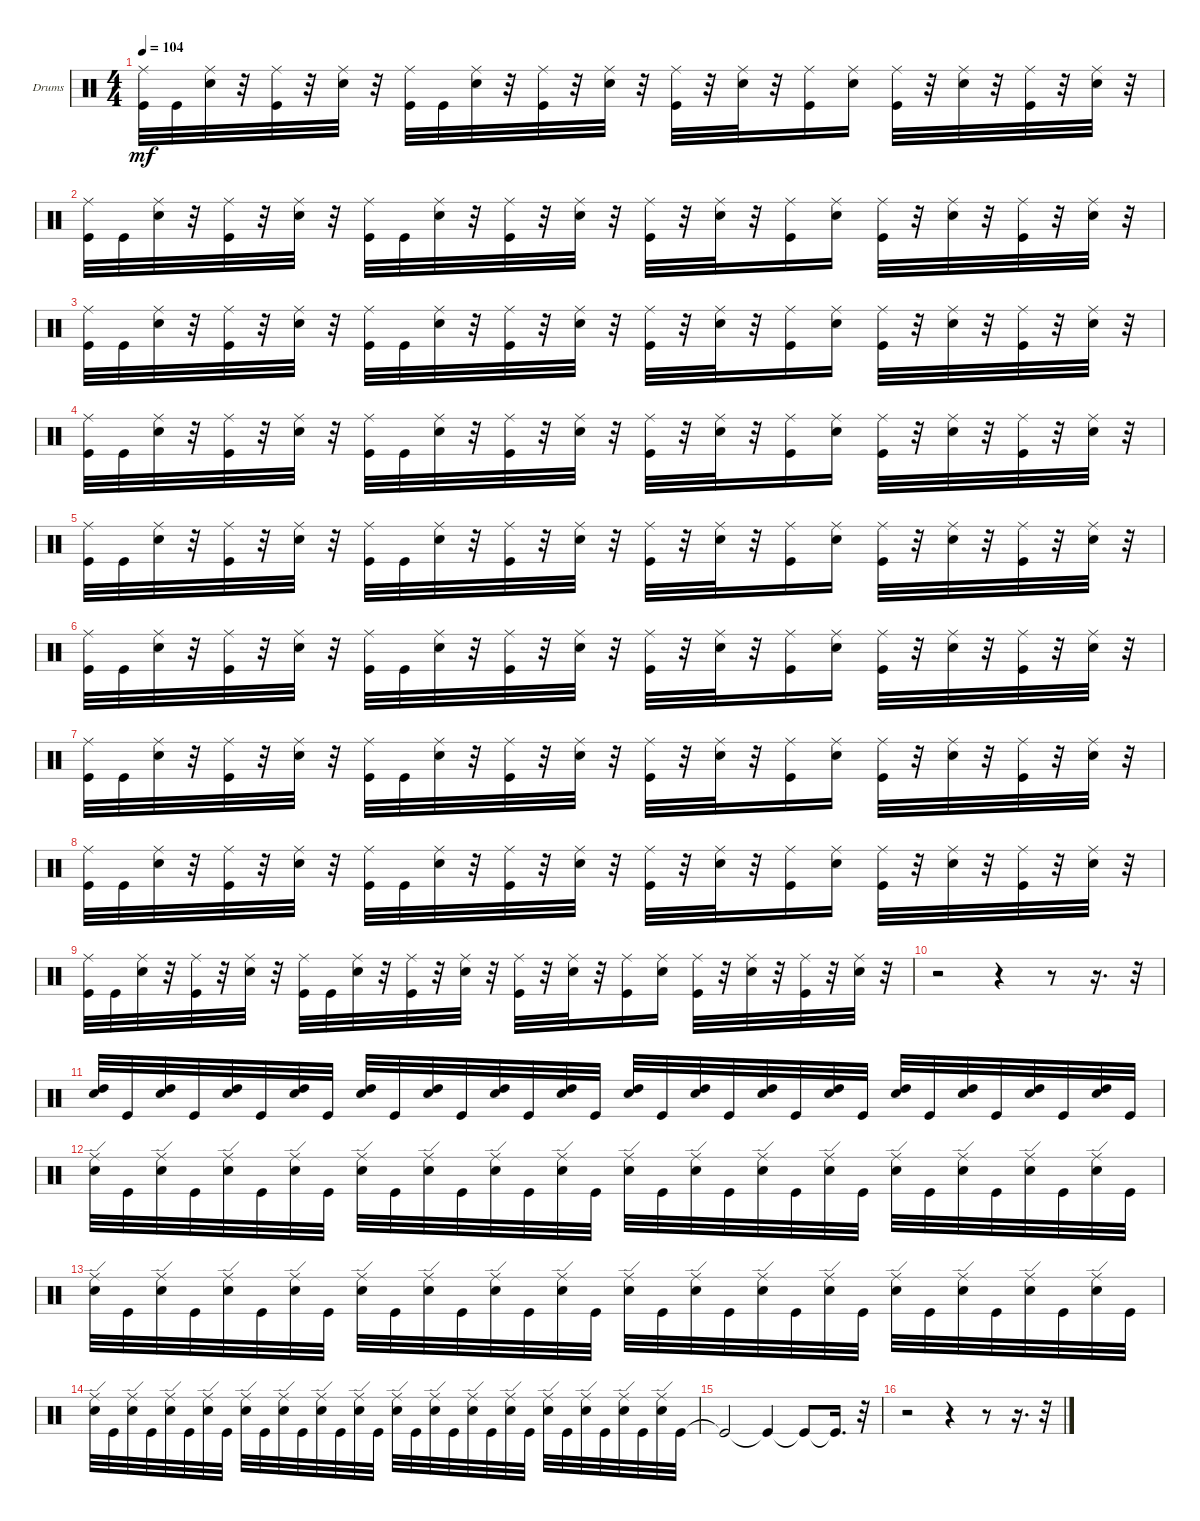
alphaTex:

\bracketExtendMode groupsimilarinstruments
\firstSystemTrackNameOrientation horizontal
\otherSystemsTrackNameOrientation horizontal
\track ("diviners drum" "Drums") {instrument percussion}
\staff {score}
\articulation defaults
\ts (4 4)
\tempo 104
\clef neutral
\ks c
("Kick (hit)" "Ride (middle)").32{dy mf} "Kick (hit)".32 ("Snare (hit) 2" "Ride (middle)").32 r.32 ("Kick (hit)" "Ride (middle)").32 r.32 ("Snare (hit) 2" "Ride (middle)").32 r.32 ("Kick (hit)" "Ride (middle)").32 "Kick (hit)".32 ("Snare (hit) 2" "Ride (middle)").32 r.32 ("Kick (hit)" "Ride (middle)").32 r.32 ("Snare (hit) 2" "Ride (middle)").32 r.32 ("Kick (hit)" "Ride (middle)").32 r.32 ("Snare (hit) 2" "Ride (middle)").32 r.32 ("Kick (hit)" "Ride (middle)").16 ("Snare (hit) 2" "Ride (middle)").16 ("Kick (hit)" "Ride (middle)").32 r.32 ("Snare (hit) 2" "Ride (middle)").32 r.32 ("Kick (hit)" "Ride (middle)").32 r.32 ("Snare (hit) 2" "Ride (middle)").32 r.32 |
("Kick (hit)" "Ride (middle)").32 "Kick (hit)".32 ("Snare (hit) 2" "Ride (middle)").32 r.32 ("Kick (hit)" "Ride (middle)").32 r.32 ("Snare (hit) 2" "Ride (middle)").32 r.32 ("Kick (hit)" "Ride (middle)").32 "Kick (hit)".32 ("Snare (hit) 2" "Ride (middle)").32 r.32 ("Kick (hit)" "Ride (middle)").32 r.32 ("Snare (hit) 2" "Ride (middle)").32 r.32 ("Kick (hit)" "Ride (middle)").32 r.32 ("Snare (hit) 2" "Ride (middle)").32 r.32 ("Kick (hit)" "Ride (middle)").16 ("Snare (hit) 2" "Ride (middle)").16 ("Kick (hit)" "Ride (middle)").32 r.32 ("Snare (hit) 2" "Ride (middle)").32 r.32 ("Kick (hit)" "Ride (middle)").32 r.32 ("Snare (hit) 2" "Ride (middle)").32 r.32 |
("Kick (hit)" "Ride (middle)").32 "Kick (hit)".32 ("Snare (hit) 2" "Ride (middle)").32 r.32 ("Kick (hit)" "Ride (middle)").32 r.32 ("Snare (hit) 2" "Ride (middle)").32 r.32 ("Kick (hit)" "Ride (middle)").32 "Kick (hit)".32 ("Snare (hit) 2" "Ride (middle)").32 r.32 ("Kick (hit)" "Ride (middle)").32 r.32 ("Snare (hit) 2" "Ride (middle)").32 r.32 ("Kick (hit)" "Ride (middle)").32 r.32 ("Snare (hit) 2" "Ride (middle)").32 r.32 ("Kick (hit)" "Ride (middle)").16 ("Snare (hit) 2" "Ride (middle)").16 ("Kick (hit)" "Ride (middle)").32 r.32 ("Snare (hit) 2" "Ride (middle)").32 r.32 ("Kick (hit)" "Ride (middle)").32 r.32 ("Snare (hit) 2" "Ride (middle)").32 r.32 |
("Kick (hit)" "Ride (middle)").32 "Kick (hit)".32 ("Snare (hit) 2" "Ride (middle)").32 r.32 ("Kick (hit)" "Ride (middle)").32 r.32 ("Snare (hit) 2" "Ride (middle)").32 r.32 ("Kick (hit)" "Ride (middle)").32 "Kick (hit)".32 ("Snare (hit) 2" "Ride (middle)").32 r.32 ("Kick (hit)" "Ride (middle)").32 r.32 ("Snare (hit) 2" "Ride (middle)").32 r.32 ("Kick (hit)" "Ride (middle)").32 r.32 ("Snare (hit) 2" "Ride (middle)").32 r.32 ("Kick (hit)" "Ride (middle)").16 ("Snare (hit) 2" "Ride (middle)").16 ("Kick (hit)" "Ride (middle)").32 r.32 ("Snare (hit) 2" "Ride (middle)").32 r.32 ("Kick (hit)" "Ride (middle)").32 r.32 ("Snare (hit) 2" "Ride (middle)").32 r.32 |
("Kick (hit)" "Ride (middle)").32 "Kick (hit)".32 ("Snare (hit) 2" "Ride (middle)").32 r.32 ("Kick (hit)" "Ride (middle)").32 r.32 ("Snare (hit) 2" "Ride (middle)").32 r.32 ("Kick (hit)" "Ride (middle)").32 "Kick (hit)".32 ("Snare (hit) 2" "Ride (middle)").32 r.32 ("Kick (hit)" "Ride (middle)").32 r.32 ("Snare (hit) 2" "Ride (middle)").32 r.32 ("Kick (hit)" "Ride (middle)").32 r.32 ("Snare (hit) 2" "Ride (middle)").32 r.32 ("Kick (hit)" "Ride (middle)").16 ("Snare (hit) 2" "Ride (middle)").16 ("Kick (hit)" "Ride (middle)").32 r.32 ("Snare (hit) 2" "Ride (middle)").32 r.32 ("Kick (hit)" "Ride (middle)").32 r.32 ("Snare (hit) 2" "Ride (middle)").32 r.32 |
("Kick (hit)" "Ride (middle)").32 "Kick (hit)".32 ("Snare (hit) 2" "Ride (middle)").32 r.32 ("Kick (hit)" "Ride (middle)").32 r.32 ("Snare (hit) 2" "Ride (middle)").32 r.32 ("Kick (hit)" "Ride (middle)").32 "Kick (hit)".32 ("Snare (hit) 2" "Ride (middle)").32 r.32 ("Kick (hit)" "Ride (middle)").32 r.32 ("Snare (hit) 2" "Ride (middle)").32 r.32 ("Kick (hit)" "Ride (middle)").32 r.32 ("Snare (hit) 2" "Ride (middle)").32 r.32 ("Kick (hit)" "Ride (middle)").16 ("Snare (hit) 2" "Ride (middle)").16 ("Kick (hit)" "Ride (middle)").32 r.32 ("Snare (hit) 2" "Ride (middle)").32 r.32 ("Kick (hit)" "Ride (middle)").32 r.32 ("Snare (hit) 2" "Ride (middle)").32 r.32 |
("Kick (hit)" "Ride (middle)").32 "Kick (hit)".32 ("Snare (hit) 2" "Ride (middle)").32 r.32 ("Kick (hit)" "Ride (middle)").32 r.32 ("Snare (hit) 2" "Ride (middle)").32 r.32 ("Kick (hit)" "Ride (middle)").32 "Kick (hit)".32 ("Snare (hit) 2" "Ride (middle)").32 r.32 ("Kick (hit)" "Ride (middle)").32 r.32 ("Snare (hit) 2" "Ride (middle)").32 r.32 ("Kick (hit)" "Ride (middle)").32 r.32 ("Snare (hit) 2" "Ride (middle)").32 r.32 ("Kick (hit)" "Ride (middle)").16 ("Snare (hit) 2" "Ride (middle)").16 ("Kick (hit)" "Ride (middle)").32 r.32 ("Snare (hit) 2" "Ride (middle)").32 r.32 ("Kick (hit)" "Ride (middle)").32 r.32 ("Snare (hit) 2" "Ride (middle)").32 r.32 |
("Kick (hit)" "Ride (middle)").32 "Kick (hit)".32 ("Snare (hit) 2" "Ride (middle)").32 r.32 ("Kick (hit)" "Ride (middle)").32 r.32 ("Snare (hit) 2" "Ride (middle)").32 r.32 ("Kick (hit)" "Ride (middle)").32 "Kick (hit)".32 ("Snare (hit) 2" "Ride (middle)").32 r.32 ("Kick (hit)" "Ride (middle)").32 r.32 ("Snare (hit) 2" "Ride (middle)").32 r.32 ("Kick (hit)" "Ride (middle)").32 r.32 ("Snare (hit) 2" "Ride (middle)").32 r.32 ("Kick (hit)" "Ride (middle)").16 ("Snare (hit) 2" "Ride (middle)").16 ("Kick (hit)" "Ride (middle)").32 r.32 ("Snare (hit) 2" "Ride (middle)").32 r.32 ("Kick (hit)" "Ride (middle)").32 r.32 ("Snare (hit) 2" "Ride (middle)").32 r.32 |
("Kick (hit)" "Ride (middle)").32 "Kick (hit)".32 ("Snare (hit) 2" "Ride (middle)").32 r.32 ("Kick (hit)" "Ride (middle)").32 r.32 ("Snare (hit) 2" "Ride (middle)").32 r.32 ("Kick (hit)" "Ride (middle)").32 "Kick (hit)".32 ("Snare (hit) 2" "Ride (middle)").32 r.32 ("Kick (hit)" "Ride (middle)").32 r.32 ("Snare (hit) 2" "Ride (middle)").32 r.32 ("Kick (hit)" "Ride (middle)").32 r.32 ("Snare (hit) 2" "Ride (middle)").32 r.32 ("Kick (hit)" "Ride (middle)").16 ("Snare (hit) 2" "Ride (middle)").16 ("Kick (hit)" "Ride (middle)").32 r.32 ("Snare (hit) 2" "Ride (middle)").32 r.32 ("Kick (hit)" "Ride (middle)").32 r.32 ("Snare (hit) 2" "Ride (middle)").32 r.32 |
r.2 r.4 r.8 r.16{d} r.32 |
("Snare (hit) 2" "High Tom (hit)").32 "Kick (hit)".32 ("Snare (hit) 2" "High Tom (hit)").32 "Kick (hit)".32 ("Snare (hit) 2" "High Tom (hit)").32 "Kick (hit)".32 ("Snare (hit) 2" "High Tom (hit)").32 "Kick (hit)".32 ("Snare (hit) 2" "High Tom (hit)").32 "Kick (hit)".32 ("Snare (hit) 2" "High Tom (hit)").32 "Kick (hit)".32 ("Snare (hit) 2" "High Tom (hit)").32 "Kick (hit)".32 ("Snare (hit) 2" "High Tom (hit)").32 "Kick (hit)".32 ("Snare (hit) 2" "High Tom (hit)").32 "Kick (hit)".32 ("High Tom (hit)" "Snare (hit) 2").32 "Kick (hit)".32 ("Snare (hit) 2" "High Tom (hit)").32 "Kick (hit)".32 ("Snare (hit) 2" "High Tom (hit)").32 "Kick (hit)".32 ("Snare (hit) 2" "High Tom (hit)").32 "Kick (hit)".32 ("Snare (hit) 2" "High Tom (hit)").32 "Kick (hit)".32 ("Snare (hit) 2" "High Tom (hit)").32 "Kick (hit)".32 ("High Tom (hit)" "Snare (hit) 2").32 "Kick (hit)".32 |
("Snare (hit) 2" "Ride (edge)").32 "Kick (hit)".32 ("Snare (hit) 2" "Ride (edge)").32 "Kick (hit)".32 ("Snare (hit) 2" "Ride (edge)").32 "Kick (hit)".32 ("Snare (hit) 2" "Ride (edge)").32 "Kick (hit)".32 ("Snare (hit) 2" "Ride (edge)").32 "Kick (hit)".32 ("Snare (hit) 2" "Ride (edge)").32 "Kick (hit)".32 ("Snare (hit) 2" "Ride (edge)").32 "Kick (hit)".32 ("Snare (hit) 2" "Ride (edge)").32 "Kick (hit)".32 ("Snare (hit) 2" "Ride (edge)").32 "Kick (hit)".32 ("Ride (edge)" "Snare (hit) 2").32 "Kick (hit)".32 ("Snare (hit) 2" "Ride (edge)").32 "Kick (hit)".32 ("Snare (hit) 2" "Ride (edge)").32 "Kick (hit)".32 ("Snare (hit) 2" "Ride (edge)").32 "Kick (hit)".32 ("Snare (hit) 2" "Ride (edge)").32 "Kick (hit)".32 ("Snare (hit) 2" "Ride (edge)").32 "Kick (hit)".32 ("Ride (edge)" "Snare (hit) 2").32 "Kick (hit)".32 |
("Snare (hit) 2" "Ride (edge)").32 "Kick (hit)".32 ("Snare (hit) 2" "Ride (edge)").32 "Kick (hit)".32 ("Snare (hit) 2" "Ride (edge)").32 "Kick (hit)".32 ("Snare (hit) 2" "Ride (edge)").32 "Kick (hit)".32 ("Snare (hit) 2" "Ride (edge)").32 "Kick (hit)".32 ("Snare (hit) 2" "Ride (edge)").32 "Kick (hit)".32 ("Snare (hit) 2" "Ride (edge)").32 "Kick (hit)".32 ("Snare (hit) 2" "Ride (edge)").32 "Kick (hit)".32 ("Snare (hit) 2" "Ride (edge)").32 "Kick (hit)".32 ("Ride (edge)" "Snare (hit) 2").32 "Kick (hit)".32 ("Snare (hit) 2" "Ride (edge)").32 "Kick (hit)".32 ("Snare (hit) 2" "Ride (edge)").32 "Kick (hit)".32 ("Snare (hit) 2" "Ride (edge)").32 "Kick (hit)".32 ("Snare (hit) 2" "Ride (edge)").32 "Kick (hit)".32 ("Snare (hit) 2" "Ride (edge)").32 "Kick (hit)".32 ("Ride (edge)" "Snare (hit) 2").32 "Kick (hit)".32 |
("Snare (hit) 2" "Ride (edge)").32 "Kick (hit)".32 ("Snare (hit) 2" "Ride (edge)").32 "Kick (hit)".32 ("Snare (hit) 2" "Ride (edge)").32 "Kick (hit)".32 ("Snare (hit) 2" "Ride (edge)").32 "Kick (hit)".32 ("Snare (hit) 2" "Ride (edge)").32 "Kick (hit)".32 ("Snare (hit) 2" "Ride (edge)").32 "Kick (hit)".32 ("Snare (hit) 2" "Ride (edge)").32 "Kick (hit)".32 ("Snare (hit) 2" "Ride (edge)").32 "Kick (hit)".32 ("Snare (hit) 2" "Ride (edge)").32 "Kick (hit)".32 ("Ride (edge)" "Snare (hit) 2").32 "Kick (hit)".32 ("Snare (hit) 2" "Ride (edge)").32 "Kick (hit)".32 ("Snare (hit) 2" "Ride (edge)").32 "Kick (hit)".32 ("Snare (hit) 2" "Ride (edge)").32 "Kick (hit)".32 ("Snare (hit) 2" "Ride (edge)").32 "Kick (hit)".32 ("Snare (hit) 2" "Ride (edge)").32 "Kick (hit)".32 ("Ride (edge)" "Snare (hit) 2").32 "Kick (hit)".32 |
"Kick (hit)"{t}.2 "Kick (hit)"{t}.4 "Kick (hit)"{t}.8 "Kick (hit)"{t}.16{d} r.32 |
r.2 r.4 r.8 r.16{d} r.32
